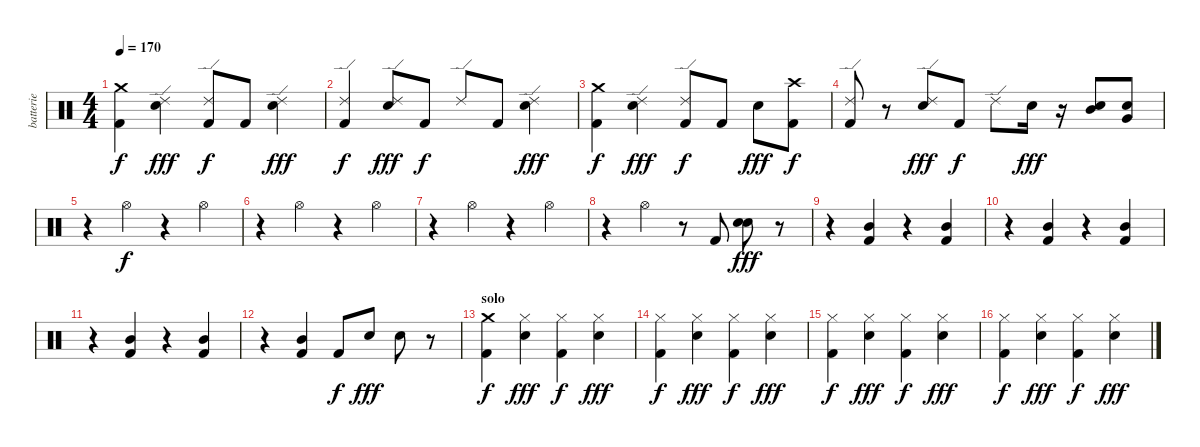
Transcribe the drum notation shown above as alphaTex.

\track ("batterie" "batterie") {instrument percussion}
\staff {score}
\articulation defaults
\ts (4 4)
\tempo 170
\clef neutral
\ks c
("Crash medium (hit)" "Kick (hit) 2").4{dy f} ("Ride (edge) 2" "Electric Snare (hit)").4{dy fff} ("Ride (edge) 2" "Kick (hit) 2").8{dy f} "Kick (hit) 2".8 ("Ride (edge) 2" "Electric Snare (hit)").4{dy fff} |
("Ride (edge) 2" "Kick (hit) 2").4{dy f} ("Ride (edge) 2" "Electric Snare (hit)").8{dy fff} "Kick (hit) 2".8{dy f} "Ride (edge) 2".8 "Kick (hit) 2".8 ("Ride (edge) 2" "Electric Snare (hit)").4{dy fff} |
("Crash medium (hit)" "Kick (hit) 2").4{dy f} ("Ride (edge) 2" "Electric Snare (hit)").4{dy fff} ("Ride (edge) 2" "Kick (hit) 2").8{dy f} "Kick (hit) 2".8 "Electric Snare (hit)".8{dy fff} ("Crash high (hit)" "Kick (hit) 2").8{dy f} |
("Ride (edge) 2" "Kick (hit) 2").8 r.8 ("Ride (edge) 2" "Electric Snare (hit)").8{dy fff} "Kick (hit) 2".8{dy f} "Ride (edge) 2".8 "Electric Snare (hit)".16{dy fff} r.16 ("Mid Tom (hit)" "Electric Snare (hit)").8 ("Electric Snare (hit)" "Very Low Tom (hit)").8 |
r.4 "Hi-Hat (open)".4{dy f} r.4 "Hi-Hat (open)".4 |
r.4 "Hi-Hat (open)".4 r.4 "Hi-Hat (open)".4 |
r.4 "Hi-Hat (open)".4 r.4 "Hi-Hat (open)".4 |
r.4 "Hi-Hat (open)".4 r.8 "Kick (hit) 2".8 ("Electric Snare (hit)" "Electric Snare (hit)").8{dy fff} r.8 |
r.4 ("Mid Tom (hit)" "Kick (hit) 2").4 r.4 ("Mid Tom (hit)" "Kick (hit) 2").4 |
r.4 ("Mid Tom (hit)" "Kick (hit) 2").4 r.4 ("Mid Tom (hit)" "Kick (hit) 2").4 |
r.4 ("Mid Tom (hit)" "Kick (hit) 2").4 r.4 ("Mid Tom (hit)" "Kick (hit) 2").4 |
r.4 ("Mid Tom (hit)" "Kick (hit) 2").4 "Kick (hit) 2".8{dy f} "Electric Snare (hit)".8{dy fff} "Electric Snare (hit)".8 r.8 |
\section ("" "solo")
("Crash medium (hit)" "Kick (hit) 2").4{dy f} ("Hi-Hat (closed)" "Electric Snare (hit)").4{dy fff} ("Hi-Hat (closed)" "Kick (hit) 2").4{dy f} ("Hi-Hat (closed)" "Electric Snare (hit)").4{dy fff} |
("Hi-Hat (closed)" "Kick (hit) 2").4{dy f} ("Hi-Hat (closed)" "Electric Snare (hit)").4{dy fff} ("Hi-Hat (closed)" "Kick (hit) 2").4{dy f} ("Hi-Hat (closed)" "Electric Snare (hit)").4{dy fff} |
("Hi-Hat (closed)" "Kick (hit) 2").4{dy f} ("Hi-Hat (closed)" "Electric Snare (hit)").4{dy fff} ("Hi-Hat (closed)" "Kick (hit) 2").4{dy f} ("Hi-Hat (closed)" "Electric Snare (hit)").4{dy fff} |
("Hi-Hat (closed)" "Kick (hit) 2").4{dy f} ("Hi-Hat (closed)" "Electric Snare (hit)").4{dy fff} ("Hi-Hat (closed)" "Kick (hit) 2").4{dy f} ("Hi-Hat (closed)" "Electric Snare (hit)").4{dy fff}
